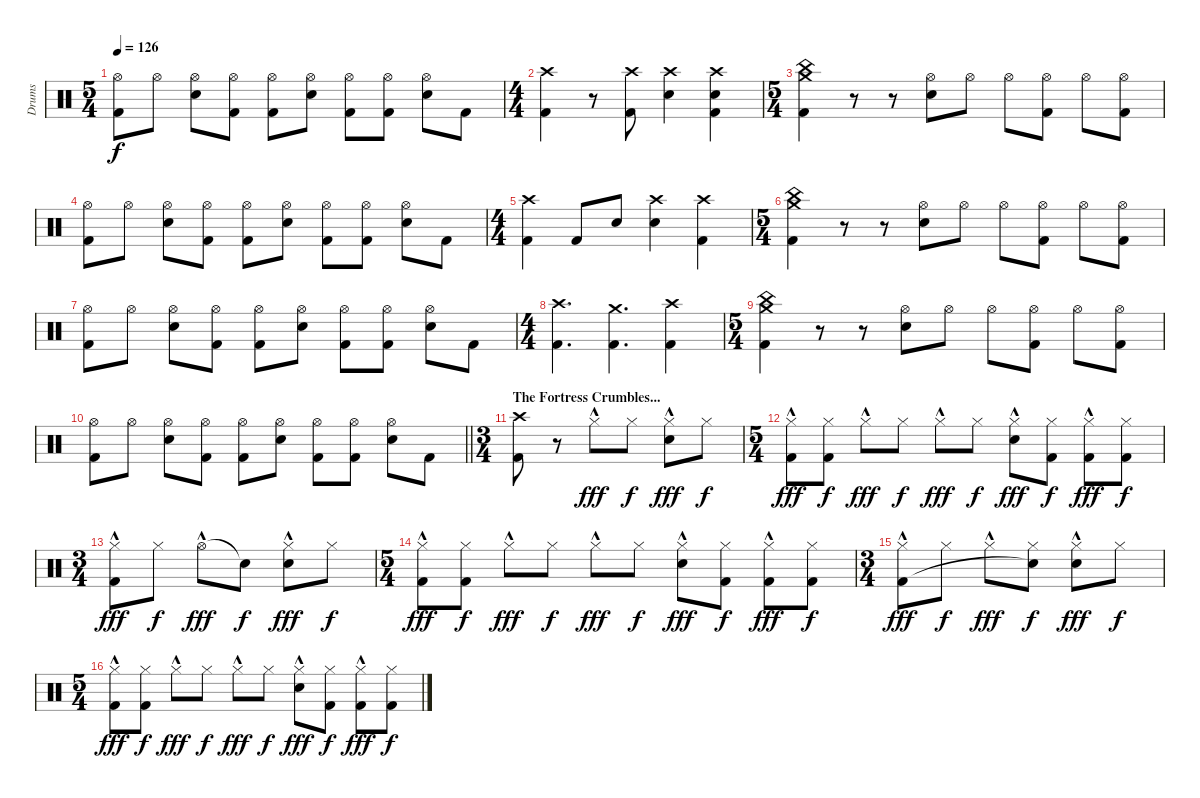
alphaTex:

\track ("Drums" "Drums") {instrument percussion}
\staff {score}
\articulation defaults
\ts (5 4)
\tempo 126
\clef neutral
\ks c
("Hi-Hat (open)" "Kick (hit) 2").8{dy f} "Hi-Hat (open)".8 ("Hi-Hat (open)" "Snare (hit) 2").8 ("Hi-Hat (open)" "Kick (hit) 2").8 ("Hi-Hat (open)" "Kick (hit) 2").8 ("Hi-Hat (open)" "Snare (hit) 2").8 ("Hi-Hat (open)" "Kick (hit) 2").8 ("Hi-Hat (open)" "Kick (hit) 2").8 ("Hi-Hat (open)" "Snare (hit) 2").8 "Kick (hit) 2".8 |
\ts (4 4)
("Crash high (hit)" "Kick (hit) 2").4 r.8 ("Crash high (hit)" "Kick (hit) 2").8 ("Crash high (hit)" "Snare (hit) 2").4 ("Crash high (hit)" "Snare (hit) 2" "Kick (hit) 2").4 |
\ts (5 4)
("China (hit)" "Crash medium (hit)" "Kick (hit) 2").4 r.8 r.8 ("Hi-Hat (open)" "Snare (hit) 2").8 "Hi-Hat (open)".8 "Hi-Hat (open)".8 ("Hi-Hat (open)" "Kick (hit) 2").8 "Hi-Hat (open)".8 ("Hi-Hat (open)" "Kick (hit) 2").8 |
("Hi-Hat (open)" "Kick (hit) 2").8 "Hi-Hat (open)".8 ("Hi-Hat (open)" "Snare (hit) 2").8 ("Hi-Hat (open)" "Kick (hit) 2").8 ("Hi-Hat (open)" "Kick (hit) 2").8 ("Hi-Hat (open)" "Snare (hit) 2").8 ("Hi-Hat (open)" "Kick (hit) 2").8 ("Hi-Hat (open)" "Kick (hit) 2").8 ("Hi-Hat (open)" "Snare (hit) 2").8 "Kick (hit) 2".8 |
\ts (4 4)
("Crash high (hit)" "Kick (hit) 2").4 "Kick (hit) 2".8 "Snare (hit) 2".8 ("Crash high (hit)" "Snare (hit) 2").4 ("Crash high (hit)" "Kick (hit) 2").4 |
\ts (5 4)
("China (hit)" "Crash medium (hit)" "Kick (hit) 2").4 r.8 r.8 ("Hi-Hat (open)" "Snare (hit) 2").8 "Hi-Hat (open)".8 "Hi-Hat (open)".8 ("Hi-Hat (open)" "Kick (hit) 2").8 "Hi-Hat (open)".8 ("Hi-Hat (open)" "Kick (hit) 2").8 |
("Hi-Hat (open)" "Kick (hit) 2").8 "Hi-Hat (open)".8 ("Hi-Hat (open)" "Snare (hit) 2").8 ("Hi-Hat (open)" "Kick (hit) 2").8 ("Hi-Hat (open)" "Kick (hit) 2").8 ("Hi-Hat (open)" "Snare (hit) 2").8 ("Hi-Hat (open)" "Kick (hit) 2").8 ("Hi-Hat (open)" "Kick (hit) 2").8 ("Hi-Hat (open)" "Snare (hit) 2").8 "Kick (hit) 2".8 |
\ts (4 4)
("Crash high (hit)" "Kick (hit) 2").4{d} ("Crash medium (hit)" "Kick (hit) 2").4{d} ("Crash high (hit)" "Kick (hit) 2").4 |
\ts (5 4)
("China (hit)" "Crash medium (hit)" "Kick (hit) 2").4 r.8 r.8 ("Hi-Hat (open)" "Snare (hit) 2").8 "Hi-Hat (open)".8 "Hi-Hat (open)".8 ("Hi-Hat (open)" "Kick (hit) 2").8 "Hi-Hat (open)".8 ("Hi-Hat (open)" "Kick (hit) 2").8 |
\barLineRight lightlight
("Hi-Hat (open)" "Kick (hit) 2").8 "Hi-Hat (open)".8 ("Hi-Hat (open)" "Snare (hit) 2").8 ("Hi-Hat (open)" "Kick (hit) 2").8 ("Hi-Hat (open)" "Kick (hit) 2").8 ("Hi-Hat (open)" "Snare (hit) 2").8 ("Hi-Hat (open)" "Kick (hit) 2").8 ("Hi-Hat (open)" "Kick (hit) 2").8 ("Hi-Hat (open)" "Snare (hit) 2").8 "Kick (hit) 2".8 |
\ts (3 4)
\section ("" "The Fortress Crumbles...")
("Crash high (hit)" "Kick (hit) 2").8 r.8 "Hi-Hat (closed)"{hac}.8{dy fff} "Hi-Hat (closed)".8{dy f} ("Hi-Hat (closed)"{hac} "Snare (hit) 2"{hac}).8{dy fff} "Hi-Hat (closed)".8{dy f} |
\ts (5 4)
("Hi-Hat (closed)"{hac} "Kick (hit) 2").8{dy fff} ("Hi-Hat (closed)" "Kick (hit) 2").8{dy f} "Hi-Hat (closed)"{hac}.8{dy fff} "Hi-Hat (closed)".8{dy f} "Hi-Hat (closed)"{hac}.8{dy fff} "Hi-Hat (closed)".8{dy f} ("Hi-Hat (closed)"{hac} "Snare (hit) 2"{hac}).8{dy fff} ("Hi-Hat (closed)" "Kick (hit) 2").8{dy f} ("Hi-Hat (closed)"{hac} "Kick (hit) 2").8{dy fff} ("Hi-Hat (closed)" "Kick (hit) 2").8{dy f} |
\ts (3 4)
("Hi-Hat (closed)"{hac} "Kick (hit) 2").8{dy fff} "Hi-Hat (closed)".8{dy f} "Hi-Hat (open)"{hac}.8{dy fff} "Snare (hit)"{t}.8{dy f} ("Hi-Hat (closed)"{hac} "Snare (hit) 2"{hac}).8{dy fff} "Hi-Hat (closed)".8{dy f} |
\ts (5 4)
("Hi-Hat (closed)"{hac} "Kick (hit) 2").8{dy fff} ("Hi-Hat (closed)" "Kick (hit) 2").8{dy f} "Hi-Hat (closed)"{hac}.8{dy fff} "Hi-Hat (closed)".8{dy f} "Hi-Hat (closed)"{hac}.8{dy fff} "Hi-Hat (closed)".8{dy f} ("Hi-Hat (closed)"{hac} "Snare (hit) 2"{hac}).8{dy fff} ("Hi-Hat (closed)" "Kick (hit) 2").8{dy f} ("Hi-Hat (closed)"{hac} "Kick (hit) 2").8{dy fff} ("Hi-Hat (closed)" "Kick (hit) 2").8{dy f} |
\ts (3 4)
("Hi-Hat (closed)"{hac} "Kick (hit) 2").8{dy fff} "Hi-Hat (closed)".8{dy f} "Hi-Hat (closed)"{hac}.8{dy fff} ("Hi-Hat (closed)" "Snare (hit)"{t}).8{dy f} ("Hi-Hat (closed)"{hac} "Snare (hit) 2"{hac}).8{dy fff} "Hi-Hat (closed)".8{dy f} |
\ts (5 4)
("Hi-Hat (closed)"{hac} "Kick (hit) 2").8{dy fff} ("Hi-Hat (closed)" "Kick (hit) 2").8{dy f} "Hi-Hat (closed)"{hac}.8{dy fff} "Hi-Hat (closed)".8{dy f} "Hi-Hat (closed)"{hac}.8{dy fff} "Hi-Hat (closed)".8{dy f} ("Hi-Hat (closed)"{hac} "Snare (hit) 2"{hac}).8{dy fff} ("Hi-Hat (closed)" "Kick (hit) 2").8{dy f} ("Hi-Hat (closed)"{hac} "Kick (hit) 2").8{dy fff} ("Hi-Hat (closed)" "Kick (hit) 2").8{dy f}
